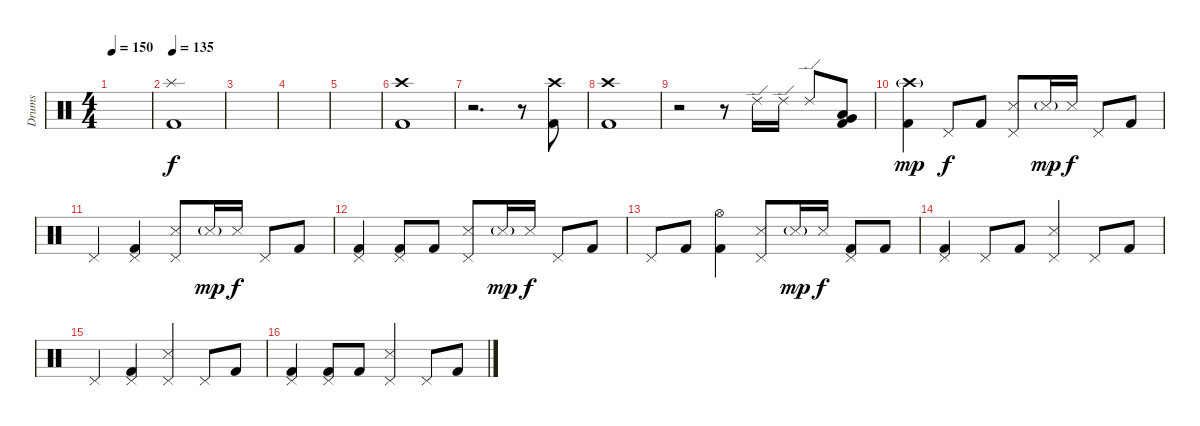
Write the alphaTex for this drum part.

\track ("Drums" "Drums") {instrument percussion}
\staff {score}
\articulation defaults
\ts (4 4)
\tempo 150
\clef neutral
\ks c
|
\tempo 135
("Splash (hit)" "Kick (hit) 2").1{dy f} |
|
|
|
("Crash high (hit)" "Kick (hit) 2").1 |
r.2{d} r.8 ("Crash high (hit)" "Kick (hit) 2").8 |
("Crash high (hit)" "Kick (hit) 2").1 |
r.2 r.8 "Ride (edge) 2".16 "Ride (edge) 2".16 "Ride (edge) 2".8 ("Low Floor Tom (hit)" "Very Low Tom (hit)" "Kick (hit) 2").8 |
("Crash high (hit)"{g} "Kick (hit) 2").4{dy mp} "Pedal Hi-Hat (hit)".8{dy f} "Kick (hit) 2".8 ("Pedal Hi-Hat (hit)" "Snare (side stick) 3").8 "Snare (side stick) 3"{g}.16{dy mp} "Snare (side stick) 3".16{dy f} "Pedal Hi-Hat (hit)".8 "Kick (hit) 2".8 |
"Pedal Hi-Hat (hit)".4 ("Pedal Hi-Hat (hit)" "Kick (hit) 2").4 ("Pedal Hi-Hat (hit)" "Metronome (hit)").8 "Metronome (hit)"{g}.16{dy mp} "Metronome (hit)".16{dy f} "Pedal Hi-Hat (hit)".8 "Kick (hit) 2".8 |
("Pedal Hi-Hat (hit)" "Kick (hit) 2").4 ("Pedal Hi-Hat (hit)" "Kick (hit) 2").8 "Kick (hit) 2".8 ("Pedal Hi-Hat (hit)" "Metronome (hit)").8 "Metronome (hit)"{g}.16{dy mp} "Metronome (hit)".16{dy f} "Pedal Hi-Hat (hit)".8 "Kick (hit) 2".8 |
"Pedal Hi-Hat (hit)".8 "Kick (hit) 2".8 ("Hi-Hat (open)" "Kick (hit) 2").4 ("Pedal Hi-Hat (hit)" "Metronome (hit)").8 "Metronome (hit)"{g}.16{dy mp} "Metronome (hit)".16{dy f} ("Pedal Hi-Hat (hit)" "Kick (hit) 2").8 "Kick (hit) 2".8 |
("Pedal Hi-Hat (hit)" "Kick (hit) 2").4 "Pedal Hi-Hat (hit)".8 "Kick (hit) 2".8 ("Pedal Hi-Hat (hit)" "Metronome (hit)").4 "Pedal Hi-Hat (hit)".8 "Kick (hit) 2".8 |
"Pedal Hi-Hat (hit)".4 ("Pedal Hi-Hat (hit)" "Kick (hit) 2").4 ("Pedal Hi-Hat (hit)" "Metronome (hit)").4 "Pedal Hi-Hat (hit)".8 "Kick (hit) 2".8 |
("Pedal Hi-Hat (hit)" "Kick (hit) 2").4 ("Pedal Hi-Hat (hit)" "Kick (hit) 2").8 "Kick (hit) 2".8 ("Pedal Hi-Hat (hit)" "Metronome (hit)").4 "Pedal Hi-Hat (hit)".8 "Kick (hit) 2".8
